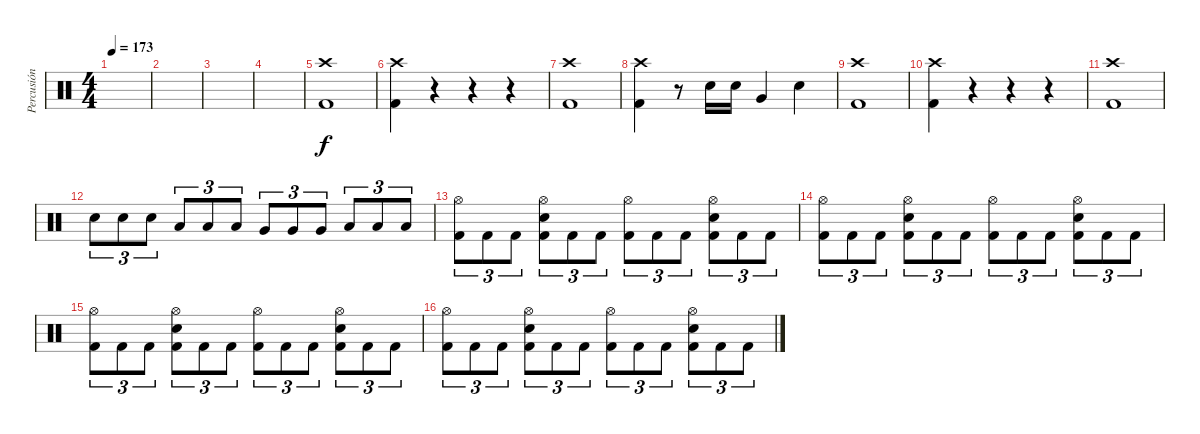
\track ("Percusión" "Percusión") {instrument percussion}
\staff {score}
\articulation defaults
\ts (4 4)
\tempo 173
\clef neutral
\ks c
|
|
|
|
("Crash high (hit)" "Kick (hit) 2").1 |
("Crash high (hit)" "Kick (hit) 2").4 r.4 r.4 r.4 |
("Crash high (hit)" "Kick (hit) 2").1 |
("Crash high (hit)" "Kick (hit) 2").4 r.8 "Snare (hit) 2".16 "Snare (hit) 2".16 "Very Low Tom (hit)".4 "Snare (hit) 2".4 |
("Crash high (hit)" "Kick (hit) 2").1 |
("Crash high (hit)" "Kick (hit) 2").4 r.4 r.4 r.4 |
("Crash high (hit)" "Kick (hit) 2").1 |
"Snare (hit) 2".8{tu (3 2)} "Snare (hit) 2".8{tu (3 2)} "Snare (hit) 2".8{tu (3 2)} "Low Tom (hit)".8{tu (3 2)} "Low Tom (hit)".8{tu (3 2)} "Low Tom (hit)".8{tu (3 2)} "Very Low Tom (hit)".8{tu (3 2)} "Very Low Tom (hit)".8{tu (3 2)} "Very Low Tom (hit)".8{tu (3 2)} "Low Floor Tom (hit)".8{tu (3 2)} "Low Floor Tom (hit)".8{tu (3 2)} "Low Floor Tom (hit)".8{tu (3 2)} |
("Hi-Hat (open)" "Kick (hit) 2").8{tu (3 2)} "Kick (hit) 2".8{tu (3 2)} "Kick (hit) 2".8{tu (3 2)} ("Hi-Hat (open)" "Snare (hit) 2" "Kick (hit) 2").8{tu (3 2)} "Kick (hit) 2".8{tu (3 2)} "Kick (hit) 2".8{tu (3 2)} ("Hi-Hat (open)" "Kick (hit) 2").8{tu (3 2)} "Kick (hit) 2".8{tu (3 2)} "Kick (hit) 2".8{tu (3 2)} ("Hi-Hat (open)" "Snare (hit) 2" "Kick (hit) 2").8{tu (3 2)} "Kick (hit) 2".8{tu (3 2)} "Kick (hit) 2".8{tu (3 2)} |
("Hi-Hat (open)" "Kick (hit) 2").8{tu (3 2)} "Kick (hit) 2".8{tu (3 2)} "Kick (hit) 2".8{tu (3 2)} ("Hi-Hat (open)" "Snare (hit) 2" "Kick (hit) 2").8{tu (3 2)} "Kick (hit) 2".8{tu (3 2)} "Kick (hit) 2".8{tu (3 2)} ("Hi-Hat (open)" "Kick (hit) 2").8{tu (3 2)} "Kick (hit) 2".8{tu (3 2)} "Kick (hit) 2".8{tu (3 2)} ("Hi-Hat (open)" "Snare (hit) 2" "Kick (hit) 2").8{tu (3 2)} "Kick (hit) 2".8{tu (3 2)} "Kick (hit) 2".8{tu (3 2)} |
("Hi-Hat (open)" "Kick (hit) 2").8{tu (3 2)} "Kick (hit) 2".8{tu (3 2)} "Kick (hit) 2".8{tu (3 2)} ("Hi-Hat (open)" "Snare (hit) 2" "Kick (hit) 2").8{tu (3 2)} "Kick (hit) 2".8{tu (3 2)} "Kick (hit) 2".8{tu (3 2)} ("Hi-Hat (open)" "Kick (hit) 2").8{tu (3 2)} "Kick (hit) 2".8{tu (3 2)} "Kick (hit) 2".8{tu (3 2)} ("Hi-Hat (open)" "Snare (hit) 2" "Kick (hit) 2").8{tu (3 2)} "Kick (hit) 2".8{tu (3 2)} "Kick (hit) 2".8{tu (3 2)} |
("Hi-Hat (open)" "Kick (hit) 2").8{tu (3 2)} "Kick (hit) 2".8{tu (3 2)} "Kick (hit) 2".8{tu (3 2)} ("Hi-Hat (open)" "Snare (hit) 2" "Kick (hit) 2").8{tu (3 2)} "Kick (hit) 2".8{tu (3 2)} "Kick (hit) 2".8{tu (3 2)} ("Hi-Hat (open)" "Kick (hit) 2").8{tu (3 2)} "Kick (hit) 2".8{tu (3 2)} "Kick (hit) 2".8{tu (3 2)} ("Hi-Hat (open)" "Snare (hit) 2" "Kick (hit) 2").8{tu (3 2)} "Kick (hit) 2".8{tu (3 2)} "Kick (hit) 2".8{tu (3 2)}
